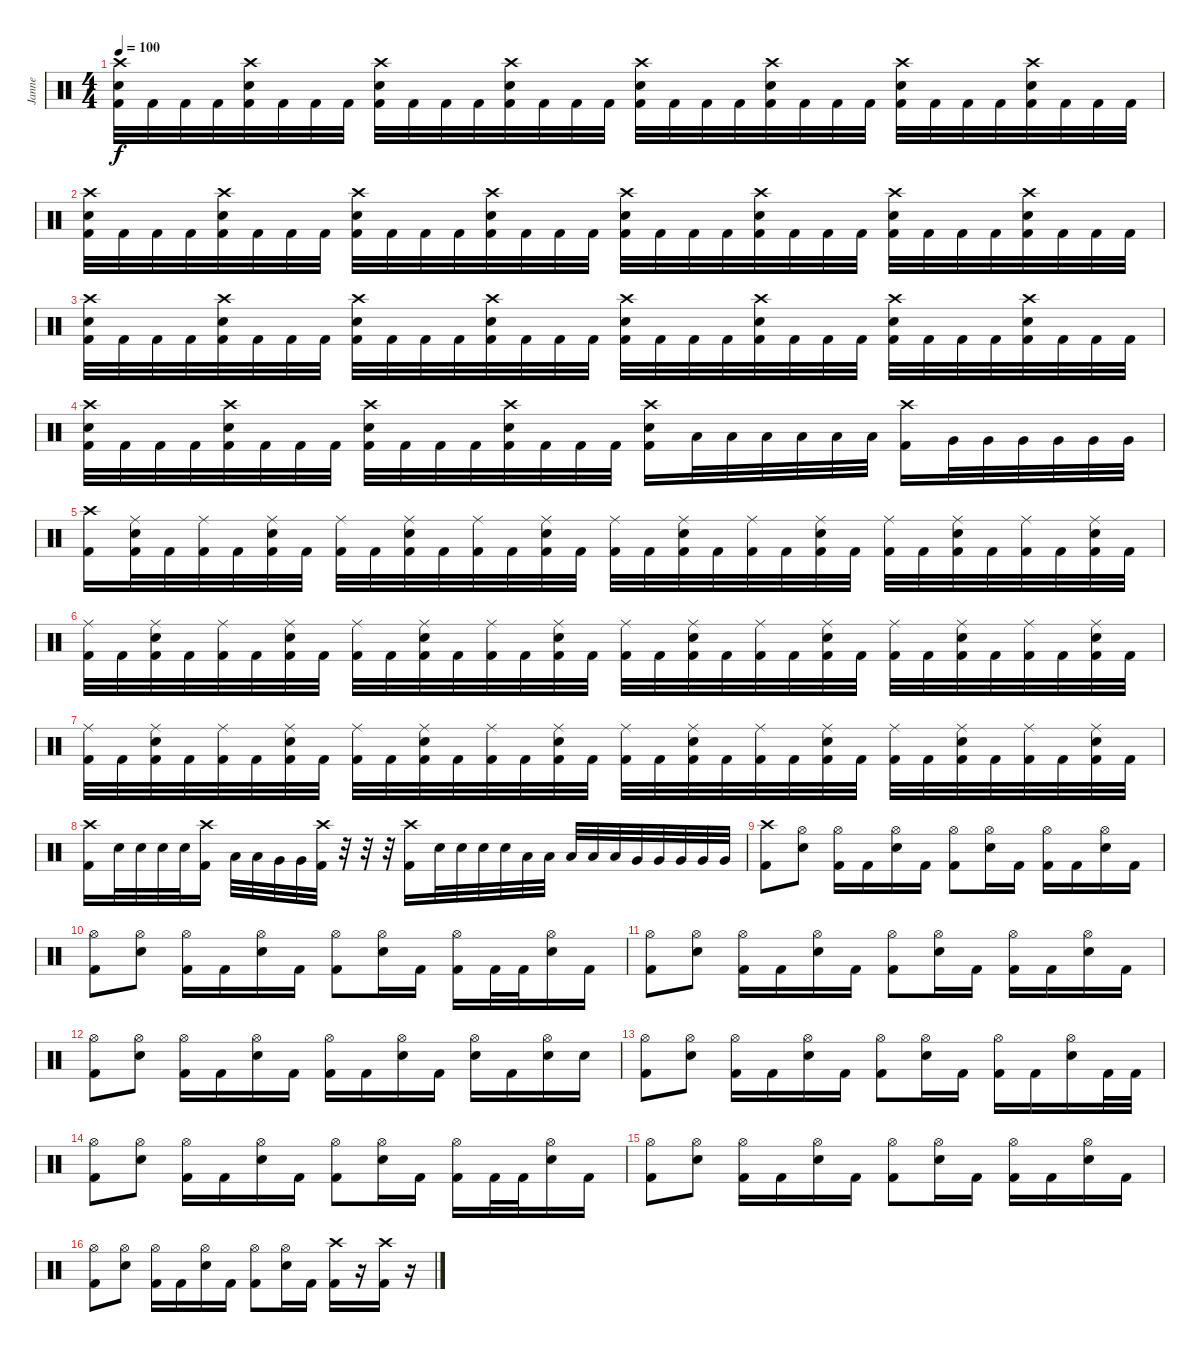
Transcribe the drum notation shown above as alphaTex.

\track ("Janne" "Janne") {instrument percussion}
\staff {score}
\articulation defaults
\ts (4 4)
\tempo 100
\clef neutral
\ks c
("Crash high (hit)" "Electric Snare (hit)" "Kick (hit) 2").32{dy f} "Kick (hit) 2".32 "Kick (hit) 2".32 "Kick (hit) 2".32 ("Crash high (hit)" "Electric Snare (hit)" "Kick (hit) 2").32 "Kick (hit) 2".32 "Kick (hit) 2".32 "Kick (hit) 2".32 ("Crash high (hit)" "Electric Snare (hit)" "Kick (hit) 2").32 "Kick (hit) 2".32 "Kick (hit) 2".32 "Kick (hit) 2".32 ("Crash high (hit)" "Electric Snare (hit)" "Kick (hit) 2").32 "Kick (hit) 2".32 "Kick (hit) 2".32 "Kick (hit) 2".32 ("Crash high (hit)" "Electric Snare (hit)" "Kick (hit) 2").32 "Kick (hit) 2".32 "Kick (hit) 2".32 "Kick (hit) 2".32 ("Crash high (hit)" "Electric Snare (hit)" "Kick (hit) 2").32 "Kick (hit) 2".32 "Kick (hit) 2".32 "Kick (hit) 2".32 ("Crash high (hit)" "Electric Snare (hit)" "Kick (hit) 2").32 "Kick (hit) 2".32 "Kick (hit) 2".32 "Kick (hit) 2".32 ("Crash high (hit)" "Electric Snare (hit)" "Kick (hit) 2").32 "Kick (hit) 2".32 "Kick (hit) 2".32 "Kick (hit) 2".32 |
("Crash high (hit)" "Electric Snare (hit)" "Kick (hit) 2").32 "Kick (hit) 2".32 "Kick (hit) 2".32 "Kick (hit) 2".32 ("Crash high (hit)" "Electric Snare (hit)" "Kick (hit) 2").32 "Kick (hit) 2".32 "Kick (hit) 2".32 "Kick (hit) 2".32 ("Crash high (hit)" "Electric Snare (hit)" "Kick (hit) 2").32 "Kick (hit) 2".32 "Kick (hit) 2".32 "Kick (hit) 2".32 ("Crash high (hit)" "Electric Snare (hit)" "Kick (hit) 2").32 "Kick (hit) 2".32 "Kick (hit) 2".32 "Kick (hit) 2".32 ("Crash high (hit)" "Electric Snare (hit)" "Kick (hit) 2").32 "Kick (hit) 2".32 "Kick (hit) 2".32 "Kick (hit) 2".32 ("Crash high (hit)" "Electric Snare (hit)" "Kick (hit) 2").32 "Kick (hit) 2".32 "Kick (hit) 2".32 "Kick (hit) 2".32 ("Crash high (hit)" "Electric Snare (hit)" "Kick (hit) 2").32 "Kick (hit) 2".32 "Kick (hit) 2".32 "Kick (hit) 2".32 ("Crash high (hit)" "Electric Snare (hit)" "Kick (hit) 2").32 "Kick (hit) 2".32 "Kick (hit) 2".32 "Kick (hit) 2".32 |
("Crash high (hit)" "Electric Snare (hit)" "Kick (hit) 2").32 "Kick (hit) 2".32 "Kick (hit) 2".32 "Kick (hit) 2".32 ("Crash high (hit)" "Electric Snare (hit)" "Kick (hit) 2").32 "Kick (hit) 2".32 "Kick (hit) 2".32 "Kick (hit) 2".32 ("Crash high (hit)" "Electric Snare (hit)" "Kick (hit) 2").32 "Kick (hit) 2".32 "Kick (hit) 2".32 "Kick (hit) 2".32 ("Crash high (hit)" "Electric Snare (hit)" "Kick (hit) 2").32 "Kick (hit) 2".32 "Kick (hit) 2".32 "Kick (hit) 2".32 ("Crash high (hit)" "Electric Snare (hit)" "Kick (hit) 2").32 "Kick (hit) 2".32 "Kick (hit) 2".32 "Kick (hit) 2".32 ("Crash high (hit)" "Electric Snare (hit)" "Kick (hit) 2").32 "Kick (hit) 2".32 "Kick (hit) 2".32 "Kick (hit) 2".32 ("Crash high (hit)" "Electric Snare (hit)" "Kick (hit) 2").32 "Kick (hit) 2".32 "Kick (hit) 2".32 "Kick (hit) 2".32 ("Crash high (hit)" "Electric Snare (hit)" "Kick (hit) 2").32 "Kick (hit) 2".32 "Kick (hit) 2".32 "Kick (hit) 2".32 |
("Crash high (hit)" "Electric Snare (hit)" "Kick (hit) 2").32 "Kick (hit) 2".32 "Kick (hit) 2".32 "Kick (hit) 2".32 ("Crash high (hit)" "Electric Snare (hit)" "Kick (hit) 2").32 "Kick (hit) 2".32 "Kick (hit) 2".32 "Kick (hit) 2".32 ("Crash high (hit)" "Electric Snare (hit)" "Kick (hit) 2").32 "Kick (hit) 2".32 "Kick (hit) 2".32 "Kick (hit) 2".32 ("Crash high (hit)" "Electric Snare (hit)" "Kick (hit) 2").32 "Kick (hit) 2".32 "Kick (hit) 2".32 "Kick (hit) 2".32 ("Crash high (hit)" "Electric Snare (hit)" "Kick (hit) 2").16 "Low Tom (hit)".32 "Low Tom (hit)".32 "Low Tom (hit)".32 "Low Tom (hit)".32 "Low Tom (hit)".32 "Low Tom (hit)".32 ("Crash high (hit)" "Kick (hit) 2").16 "Very Low Tom (hit)".32 "Very Low Tom (hit)".32 "Very Low Tom (hit)".32 "Very Low Tom (hit)".32 "Very Low Tom (hit)".32 "Very Low Tom (hit)".32 |
("Crash high (hit)" "Kick (hit) 2").16 ("Ride (middle)" "Electric Snare (hit)" "Kick (hit) 2").32 "Kick (hit) 2".32 ("Ride (middle)" "Kick (hit) 2").32 "Kick (hit) 2".32 ("Ride (middle)" "Electric Snare (hit)" "Kick (hit) 2").32 "Kick (hit) 2".32 ("Ride (middle)" "Kick (hit) 2").32 "Kick (hit) 2".32 ("Ride (middle)" "Electric Snare (hit)" "Kick (hit) 2").32 "Kick (hit) 2".32 ("Ride (middle)" "Kick (hit) 2").32 "Kick (hit) 2".32 ("Ride (middle)" "Electric Snare (hit)" "Kick (hit) 2").32 "Kick (hit) 2".32 ("Ride (middle)" "Kick (hit) 2").32 "Kick (hit) 2".32 ("Ride (middle)" "Electric Snare (hit)" "Kick (hit) 2").32 "Kick (hit) 2".32 ("Ride (middle)" "Kick (hit) 2").32 "Kick (hit) 2".32 ("Ride (middle)" "Electric Snare (hit)" "Kick (hit) 2").32 "Kick (hit) 2".32 ("Ride (middle)" "Kick (hit) 2").32 "Kick (hit) 2".32 ("Ride (middle)" "Electric Snare (hit)" "Kick (hit) 2").32 "Kick (hit) 2".32 ("Ride (middle)" "Kick (hit) 2").32 "Kick (hit) 2".32 ("Ride (middle)" "Electric Snare (hit)" "Kick (hit) 2").32 "Kick (hit) 2".32 |
("Ride (middle)" "Kick (hit) 2").32 "Kick (hit) 2".32 ("Ride (middle)" "Electric Snare (hit)" "Kick (hit) 2").32 "Kick (hit) 2".32 ("Ride (middle)" "Kick (hit) 2").32 "Kick (hit) 2".32 ("Ride (middle)" "Electric Snare (hit)" "Kick (hit) 2").32 "Kick (hit) 2".32 ("Ride (middle)" "Kick (hit) 2").32 "Kick (hit) 2".32 ("Ride (middle)" "Electric Snare (hit)" "Kick (hit) 2").32 "Kick (hit) 2".32 ("Ride (middle)" "Kick (hit) 2").32 "Kick (hit) 2".32 ("Ride (middle)" "Electric Snare (hit)" "Kick (hit) 2").32 "Kick (hit) 2".32 ("Ride (middle)" "Kick (hit) 2").32 "Kick (hit) 2".32 ("Ride (middle)" "Electric Snare (hit)" "Kick (hit) 2").32 "Kick (hit) 2".32 ("Ride (middle)" "Kick (hit) 2").32 "Kick (hit) 2".32 ("Ride (middle)" "Electric Snare (hit)" "Kick (hit) 2").32 "Kick (hit) 2".32 ("Ride (middle)" "Kick (hit) 2").32 "Kick (hit) 2".32 ("Ride (middle)" "Electric Snare (hit)" "Kick (hit) 2").32 "Kick (hit) 2".32 ("Ride (middle)" "Kick (hit) 2").32 "Kick (hit) 2".32 ("Ride (middle)" "Electric Snare (hit)" "Kick (hit) 2").32 "Kick (hit) 2".32 |
("Ride (middle)" "Kick (hit) 2").32 "Kick (hit) 2".32 ("Ride (middle)" "Electric Snare (hit)" "Kick (hit) 2").32 "Kick (hit) 2".32 ("Ride (middle)" "Kick (hit) 2").32 "Kick (hit) 2".32 ("Ride (middle)" "Electric Snare (hit)" "Kick (hit) 2").32 "Kick (hit) 2".32 ("Ride (middle)" "Kick (hit) 2").32 "Kick (hit) 2".32 ("Ride (middle)" "Electric Snare (hit)" "Kick (hit) 2").32 "Kick (hit) 2".32 ("Ride (middle)" "Kick (hit) 2").32 "Kick (hit) 2".32 ("Ride (middle)" "Electric Snare (hit)" "Kick (hit) 2").32 "Kick (hit) 2".32 ("Ride (middle)" "Kick (hit) 2").32 "Kick (hit) 2".32 ("Ride (middle)" "Electric Snare (hit)" "Kick (hit) 2").32 "Kick (hit) 2".32 ("Ride (middle)" "Kick (hit) 2").32 "Kick (hit) 2".32 ("Ride (middle)" "Electric Snare (hit)" "Kick (hit) 2").32 "Kick (hit) 2".32 ("Ride (middle)" "Kick (hit) 2").32 "Kick (hit) 2".32 ("Ride (middle)" "Electric Snare (hit)" "Kick (hit) 2").32 "Kick (hit) 2".32 ("Ride (middle)" "Kick (hit) 2").32 "Kick (hit) 2".32 ("Ride (middle)" "Electric Snare (hit)" "Kick (hit) 2").32 "Kick (hit) 2".32 |
("Crash high (hit)" "Kick (hit) 2").16 "Electric Snare (hit)".32 "Electric Snare (hit)".32 "Electric Snare (hit)".32 "Electric Snare (hit)".32 ("Crash high (hit)" "Kick (hit) 2").16 "Low Tom (hit)".32 "Low Tom (hit)".32 "Very Low Tom (hit)".32 "Very Low Tom (hit)".32 ("Crash high (hit)" "Kick (hit) 2").32 r.32 r.32 r.32 ("Crash high (hit)" "Kick (hit) 2").16 "Electric Snare (hit)".32 "Electric Snare (hit)".32 "Electric Snare (hit)".32 "Electric Snare (hit)".32 "Low Tom (hit)".32 "Low Tom (hit)".32 "Low Tom (hit)".32 "Low Tom (hit)".32 "Low Tom (hit)".32 "Very Low Tom (hit)".32 "Very Low Tom (hit)".32 "Very Low Tom (hit)".32 "Very Low Tom (hit)".32 "Very Low Tom (hit)".32 |
("Crash high (hit)" "Kick (hit) 2").8 ("Hi-Hat (open)" "Electric Snare (hit)").8 ("Hi-Hat (open)" "Kick (hit) 2").16 "Kick (hit) 2".16 ("Hi-Hat (open)" "Electric Snare (hit)").16 "Kick (hit) 2".16 ("Hi-Hat (open)" "Kick (hit) 2").8 ("Hi-Hat (open)" "Electric Snare (hit)").16 "Kick (hit) 2".16 ("Hi-Hat (open)" "Kick (hit) 2").16 "Kick (hit) 2".16 ("Hi-Hat (open)" "Electric Snare (hit)").16 "Kick (hit) 2".16 |
("Hi-Hat (open)" "Kick (hit) 2").8 ("Hi-Hat (open)" "Electric Snare (hit)").8 ("Hi-Hat (open)" "Kick (hit) 2").16 "Kick (hit) 2".16 ("Hi-Hat (open)" "Electric Snare (hit)").16 "Kick (hit) 2".16 ("Hi-Hat (open)" "Kick (hit) 2").8 ("Hi-Hat (open)" "Electric Snare (hit)").16 "Kick (hit) 2".16 ("Hi-Hat (open)" "Kick (hit) 2").16 "Kick (hit) 2".32 "Kick (hit) 2".32 ("Hi-Hat (open)" "Electric Snare (hit)").16 "Kick (hit) 2".16 |
("Hi-Hat (open)" "Kick (hit) 2").8 ("Hi-Hat (open)" "Electric Snare (hit)").8 ("Hi-Hat (open)" "Kick (hit) 2").16 "Kick (hit) 2".16 ("Hi-Hat (open)" "Electric Snare (hit)").16 "Kick (hit) 2".16 ("Hi-Hat (open)" "Kick (hit) 2").8 ("Hi-Hat (open)" "Electric Snare (hit)").16 "Kick (hit) 2".16 ("Hi-Hat (open)" "Kick (hit) 2").16 "Kick (hit) 2".16 ("Hi-Hat (open)" "Electric Snare (hit)").16 "Kick (hit) 2".16 |
("Hi-Hat (open)" "Kick (hit) 2").8 ("Hi-Hat (open)" "Electric Snare (hit)").8 ("Hi-Hat (open)" "Kick (hit) 2").16 "Kick (hit) 2".16 ("Hi-Hat (open)" "Electric Snare (hit)").16 "Kick (hit) 2".16 ("Hi-Hat (open)" "Kick (hit) 2").16 "Kick (hit) 2".16 ("Hi-Hat (open)" "Electric Snare (hit)").16 "Kick (hit) 2".16 ("Hi-Hat (open)" "Electric Snare (hit)").16 "Kick (hit) 2".16 ("Hi-Hat (open)" "Electric Snare (hit)").16 "Electric Snare (hit)".16 |
("Hi-Hat (open)" "Kick (hit) 2").8 ("Hi-Hat (open)" "Electric Snare (hit)").8 ("Hi-Hat (open)" "Kick (hit) 2").16 "Kick (hit) 2".16 ("Hi-Hat (open)" "Electric Snare (hit)").16 "Kick (hit) 2".16 ("Hi-Hat (open)" "Kick (hit) 2").8 ("Hi-Hat (open)" "Electric Snare (hit)").16 "Kick (hit) 2".16 ("Hi-Hat (open)" "Kick (hit) 2").16 "Kick (hit) 2".16 ("Hi-Hat (open)" "Electric Snare (hit)").16 "Kick (hit) 2".32 "Kick (hit) 2".32 |
("Hi-Hat (open)" "Kick (hit) 2").8 ("Hi-Hat (open)" "Electric Snare (hit)").8 ("Hi-Hat (open)" "Kick (hit) 2").16 "Kick (hit) 2".16 ("Hi-Hat (open)" "Electric Snare (hit)").16 "Kick (hit) 2".16 ("Hi-Hat (open)" "Kick (hit) 2").8 ("Hi-Hat (open)" "Electric Snare (hit)").16 "Kick (hit) 2".16 ("Hi-Hat (open)" "Kick (hit) 2").16 "Kick (hit) 2".32 "Kick (hit) 2".32 ("Hi-Hat (open)" "Electric Snare (hit)").16 "Kick (hit) 2".16 |
("Hi-Hat (open)" "Kick (hit) 2").8 ("Hi-Hat (open)" "Electric Snare (hit)").8 ("Hi-Hat (open)" "Kick (hit) 2").16 "Kick (hit) 2".16 ("Hi-Hat (open)" "Electric Snare (hit)").16 "Kick (hit) 2".16 ("Hi-Hat (open)" "Kick (hit) 2").8 ("Hi-Hat (open)" "Electric Snare (hit)").16 "Kick (hit) 2".16 ("Hi-Hat (open)" "Kick (hit) 2").16 "Kick (hit) 2".16 ("Hi-Hat (open)" "Electric Snare (hit)").16 "Kick (hit) 2".16 |
("Hi-Hat (open)" "Kick (hit) 2").8 ("Hi-Hat (open)" "Electric Snare (hit)").8 ("Hi-Hat (open)" "Kick (hit) 2").16 "Kick (hit) 2".16 ("Hi-Hat (open)" "Electric Snare (hit)").16 "Kick (hit) 2".16 ("Hi-Hat (open)" "Kick (hit) 2").8 ("Hi-Hat (open)" "Electric Snare (hit)").16 "Kick (hit) 2".16 ("Crash high (hit)" "Kick (hit) 2").16 r.16{volume 0} ("Crash high (hit)" "Kick (hit) 2").16{volume 13} r.16{volume 0}
